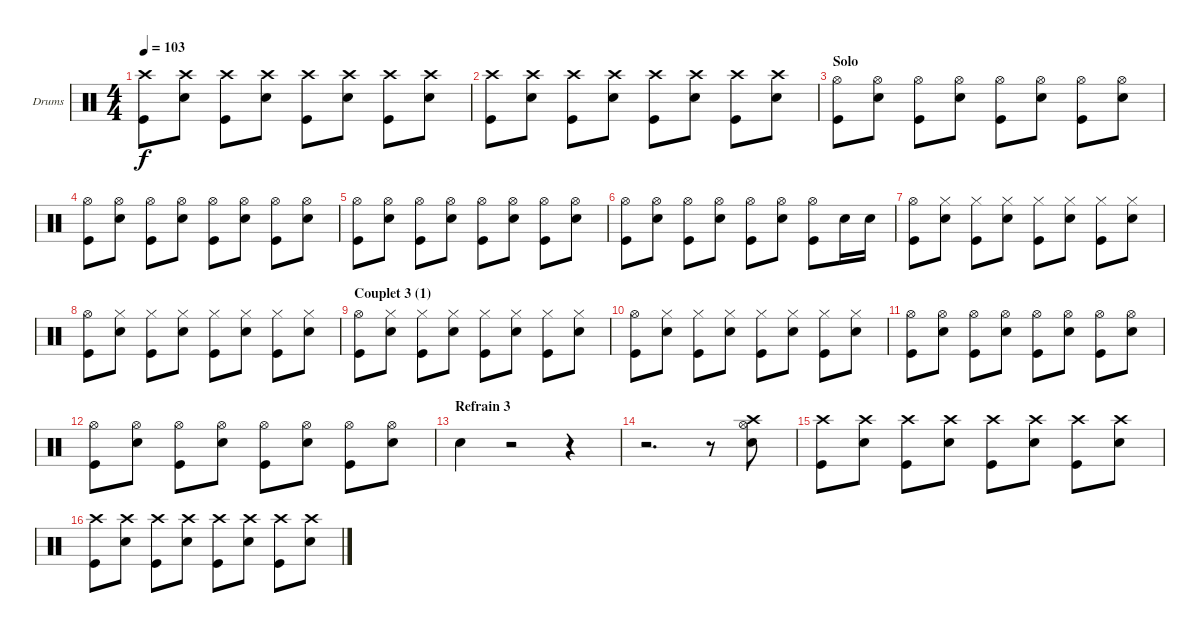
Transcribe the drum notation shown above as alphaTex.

\bracketExtendMode groupsimilarinstruments
\firstSystemTrackNameOrientation horizontal
\otherSystemsTrackNameOrientation horizontal
\chordDiagramsInScore
\track ("Drumkit" "Drums") {instrument percussion}
\staff {score}
\articulation defaults
\ts (4 4)
\tempo 103
\clef neutral
\ks c
("Crash high (hit)" "Kick (hit)").8{dy f} ("Crash high (hit)" "Snare (hit) 2").8 ("Crash high (hit)" "Kick (hit)").8 ("Crash high (hit)" "Snare (hit) 2").8 ("Crash high (hit)" "Kick (hit)").8 ("Crash high (hit)" "Snare (hit) 2").8 ("Crash high (hit)" "Kick (hit)").8 ("Crash high (hit)" "Snare (hit) 2").8 |
("Crash high (hit)" "Kick (hit)").8 ("Crash high (hit)" "Snare (hit) 2").8 ("Crash high (hit)" "Kick (hit)").8 ("Crash high (hit)" "Snare (hit) 2").8 ("Crash high (hit)" "Kick (hit)").8 ("Crash high (hit)" "Snare (hit) 2").8 ("Crash high (hit)" "Kick (hit)").8 ("Crash high (hit)" "Snare (hit) 2").8 |
\section ("" "Solo")
("Hi-Hat (open)" "Kick (hit)").8 ("Hi-Hat (open)" "Snare (hit) 2").8 ("Hi-Hat (open)" "Kick (hit)").8 ("Hi-Hat (open)" "Snare (hit) 2").8 ("Hi-Hat (open)" "Kick (hit)").8 ("Hi-Hat (open)" "Snare (hit) 2").8 ("Hi-Hat (open)" "Kick (hit)").8 ("Hi-Hat (open)" "Snare (hit) 2").8 |
("Hi-Hat (open)" "Kick (hit)").8 ("Hi-Hat (open)" "Snare (hit) 2").8 ("Hi-Hat (open)" "Kick (hit)").8 ("Hi-Hat (open)" "Snare (hit) 2").8 ("Hi-Hat (open)" "Kick (hit)").8 ("Hi-Hat (open)" "Snare (hit) 2").8 ("Hi-Hat (open)" "Kick (hit)").8 ("Hi-Hat (open)" "Snare (hit) 2").8 |
("Hi-Hat (open)" "Kick (hit)").8 ("Hi-Hat (open)" "Snare (hit) 2").8 ("Hi-Hat (open)" "Kick (hit)").8 ("Hi-Hat (open)" "Snare (hit) 2").8 ("Hi-Hat (open)" "Kick (hit)").8 ("Hi-Hat (open)" "Snare (hit) 2").8 ("Hi-Hat (open)" "Kick (hit)").8 ("Hi-Hat (open)" "Snare (hit) 2").8 |
("Hi-Hat (open)" "Kick (hit)").8 ("Hi-Hat (open)" "Snare (hit) 2").8 ("Hi-Hat (open)" "Kick (hit)").8 ("Hi-Hat (open)" "Snare (hit) 2").8 ("Hi-Hat (open)" "Kick (hit)").8 ("Hi-Hat (open)" "Snare (hit) 2").8 ("Hi-Hat (open)" "Kick (hit)").8 "Snare (hit) 2".16 "Snare (hit) 2".16 |
("Hi-Hat (open)" "Kick (hit)").8 ("Hi-Hat (closed)" "Snare (hit) 2").8 ("Hi-Hat (closed)" "Kick (hit)").8 ("Hi-Hat (closed)" "Snare (hit) 2").8 ("Hi-Hat (closed)" "Kick (hit)").8 ("Hi-Hat (closed)" "Snare (hit) 2").8 ("Hi-Hat (closed)" "Kick (hit)").8 ("Hi-Hat (closed)" "Snare (hit) 2").8 |
("Hi-Hat (open)" "Kick (hit)").8 ("Hi-Hat (closed)" "Snare (hit) 2").8 ("Hi-Hat (closed)" "Kick (hit)").8 ("Hi-Hat (closed)" "Snare (hit) 2").8 ("Hi-Hat (closed)" "Kick (hit)").8 ("Hi-Hat (closed)" "Snare (hit) 2").8 ("Hi-Hat (closed)" "Kick (hit)").8 ("Hi-Hat (closed)" "Snare (hit) 2").8 |
\section ("" "Couplet 3 (1)")
("Hi-Hat (open)" "Kick (hit)").8 ("Hi-Hat (closed)" "Snare (hit) 2").8 ("Hi-Hat (closed)" "Kick (hit)").8 ("Hi-Hat (closed)" "Snare (hit) 2").8 ("Hi-Hat (closed)" "Kick (hit)").8 ("Hi-Hat (closed)" "Snare (hit) 2").8 ("Hi-Hat (closed)" "Kick (hit)").8 ("Hi-Hat (closed)" "Snare (hit) 2").8 |
("Hi-Hat (open)" "Kick (hit)").8 ("Hi-Hat (closed)" "Snare (hit) 2").8 ("Hi-Hat (closed)" "Kick (hit)").8 ("Hi-Hat (closed)" "Snare (hit) 2").8 ("Hi-Hat (closed)" "Kick (hit)").8 ("Hi-Hat (closed)" "Snare (hit) 2").8 ("Hi-Hat (closed)" "Kick (hit)").8 ("Hi-Hat (closed)" "Snare (hit) 2").8 |
("Hi-Hat (open)" "Kick (hit)").8 ("Hi-Hat (open)" "Snare (hit) 2").8 ("Hi-Hat (open)" "Kick (hit)").8 ("Hi-Hat (open)" "Snare (hit) 2").8 ("Hi-Hat (open)" "Kick (hit)").8 ("Hi-Hat (open)" "Snare (hit) 2").8 ("Hi-Hat (open)" "Kick (hit)").8 ("Hi-Hat (open)" "Snare (hit) 2").8 |
("Hi-Hat (open)" "Kick (hit)").8 ("Hi-Hat (open)" "Snare (hit) 2").8 ("Hi-Hat (open)" "Kick (hit)").8 ("Hi-Hat (open)" "Snare (hit) 2").8 ("Hi-Hat (open)" "Kick (hit)").8 ("Hi-Hat (open)" "Snare (hit) 2").8 ("Hi-Hat (open)" "Kick (hit)").8 ("Hi-Hat (open)" "Snare (hit) 2").8 |
\section ("" "Refrain 3")
"Snare (hit) 2".4 r.2 r.4 |
r.2{d} r.8 ("Hi-Hat (open)" "Crash high (hit)" "Snare (hit) 2").8 |
("Crash high (hit)" "Kick (hit)").8 ("Crash high (hit)" "Snare (hit) 2").8 ("Crash high (hit)" "Kick (hit)").8 ("Crash high (hit)" "Snare (hit) 2").8 ("Crash high (hit)" "Kick (hit)").8 ("Crash high (hit)" "Snare (hit) 2").8 ("Crash high (hit)" "Kick (hit)").8 ("Crash high (hit)" "Snare (hit) 2").8 |
("Crash high (hit)" "Kick (hit)").8 ("Crash high (hit)" "Snare (hit) 2").8 ("Crash high (hit)" "Kick (hit)").8 ("Crash high (hit)" "Snare (hit) 2").8 ("Crash high (hit)" "Kick (hit)").8 ("Crash high (hit)" "Snare (hit) 2").8 ("Crash high (hit)" "Kick (hit)").8 ("Crash high (hit)" "Snare (hit) 2").8
